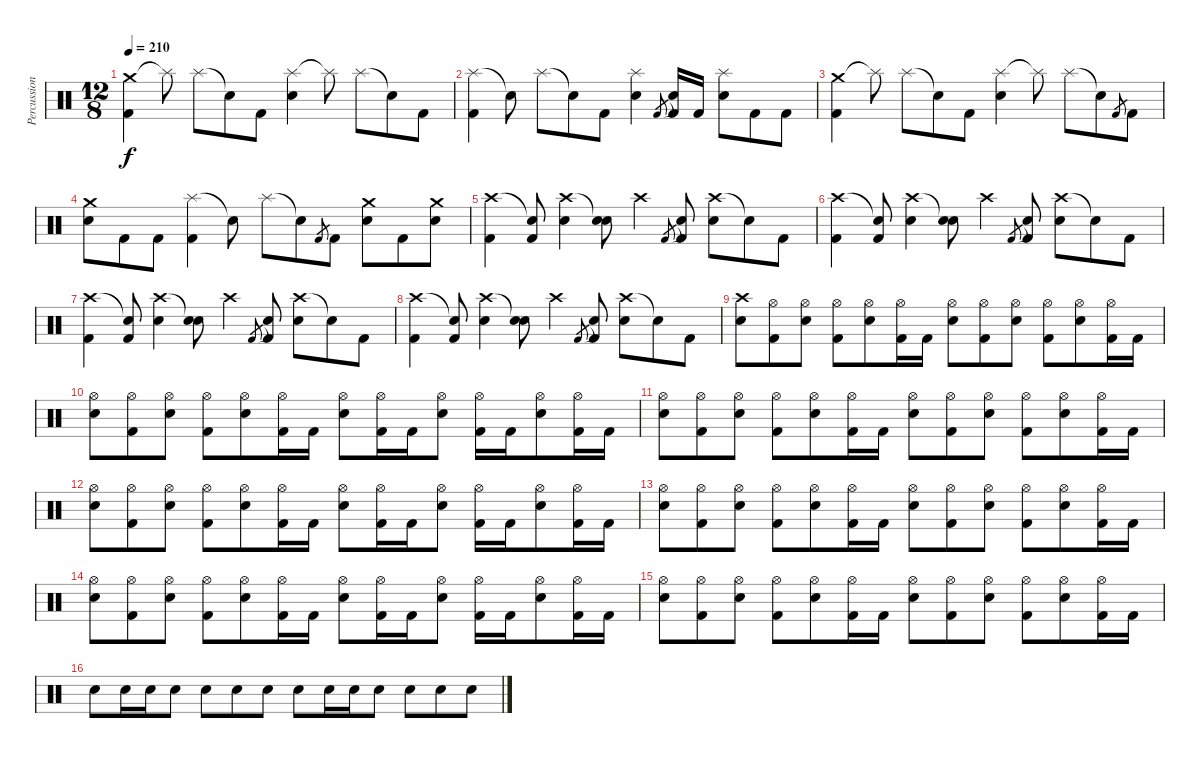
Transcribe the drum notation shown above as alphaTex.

\track ("Percussions" "Percussion") {instrument percussion}
\staff {score}
\articulation defaults
\ts (12 8)
\tempo 210
\clef neutral
\ks c
("Crash medium (hit)" "Kick (hit) 2").4{dy f} "Splash (hit)"{t}.8 "Splash (hit)".8 "Snare (hit)"{t}.8 "Kick (hit) 2".8 ("Splash (hit)" "Snare (hit) 2").4 "Splash (hit)"{t}.8 "Splash (hit)".8 "Snare (hit)"{t}.8 "Kick (hit) 2".8 |
("Splash (hit)" "Kick (hit) 2").4 "Snare (hit)"{t}.8 "Splash (hit)".8 "Snare (hit)"{t}.8 "Kick (hit) 2".8 ("Splash (hit)" "Snare (hit) 2").4 "Kick (hit) 2".8{gr} ("Snare (hit)"{t} "Kick (hit) 2").16 "Kick (hit) 2".16 ("Splash (hit)" "Snare (hit) 2").8 "Kick (hit) 2".8 "Kick (hit) 2".8 |
("Crash medium (hit)" "Kick (hit) 2").4 "Splash (hit)"{t}.8 "Splash (hit)".8 "Snare (hit)"{t}.8 "Kick (hit) 2".8 ("Splash (hit)" "Snare (hit) 2").4 "Splash (hit)"{t}.8 "Splash (hit)".8 "Snare (hit)"{t}.8 "Kick (hit) 2".8{gr} "Kick (hit) 2".8 |
("Crash medium (hit)" "Snare (hit) 2").8 "Kick (hit) 2".8 "Kick (hit) 2".8 ("Splash (hit)" "Kick (hit) 2").4 "Snare (hit)"{t}.8 "Splash (hit)".8 "Snare (hit)"{t}.8 "Kick (hit) 2".8{gr} "Kick (hit) 2".8 ("Crash medium (hit)" "Snare (hit) 2").8 "Kick (hit) 2".8 ("Crash medium (hit)" "Snare (hit) 2").8 |
("Crash high (hit)" "Kick (hit) 2").4 ("Snare (hit)"{t} "Kick (hit) 2").8 ("Crash high (hit)" "Snare (hit) 2").4 ("Snare (hit)"{t} "Snare (hit) 2").8 "Crash high (hit)".4 "Kick (hit) 2".8{gr} ("Snare (hit)"{t} "Kick (hit) 2").8 ("Crash high (hit)" "Snare (hit) 2").8 "Snare (hit)"{t}.8 "Kick (hit) 2".8 |
("Crash high (hit)" "Kick (hit) 2").4 ("Snare (hit)"{t} "Kick (hit) 2").8 ("Crash high (hit)" "Snare (hit) 2").4 ("Snare (hit)"{t} "Snare (hit) 2").8 "Crash high (hit)".4 "Kick (hit) 2".8{gr} ("Snare (hit)"{t} "Kick (hit) 2").8 ("Crash high (hit)" "Snare (hit) 2").8 "Snare (hit)"{t}.8 "Kick (hit) 2".8 |
("Crash high (hit)" "Kick (hit) 2").4 ("Snare (hit)"{t} "Kick (hit) 2").8 ("Crash high (hit)" "Snare (hit) 2").4 ("Snare (hit)"{t} "Snare (hit) 2").8 "Crash high (hit)".4 "Kick (hit) 2".8{gr} ("Snare (hit)"{t} "Kick (hit) 2").8 ("Crash high (hit)" "Snare (hit) 2").8 "Snare (hit)"{t}.8 "Kick (hit) 2".8 |
("Crash high (hit)" "Kick (hit) 2").4 ("Snare (hit)"{t} "Kick (hit) 2").8 ("Crash high (hit)" "Snare (hit) 2").4 ("Snare (hit)"{t} "Snare (hit) 2").8 "Crash high (hit)".4 "Kick (hit) 2".8{gr} ("Snare (hit)"{t} "Kick (hit) 2").8 ("Crash high (hit)" "Snare (hit) 2").8 "Snare (hit)"{t}.8 "Kick (hit) 2".8 |
("Crash high (hit)" "Snare (hit) 2").8 ("Hi-Hat (open)" "Kick (hit) 2").8 ("Hi-Hat (open)" "Snare (hit) 2").8 ("Hi-Hat (open)" "Kick (hit) 2").8 ("Hi-Hat (open)" "Snare (hit) 2").8 ("Hi-Hat (open)" "Kick (hit) 2").16 "Kick (hit) 2".16 ("Hi-Hat (open)" "Snare (hit) 2").8 ("Hi-Hat (open)" "Kick (hit) 2").8 ("Hi-Hat (open)" "Snare (hit) 2").8 ("Hi-Hat (open)" "Kick (hit) 2").8 ("Hi-Hat (open)" "Snare (hit) 2").8 ("Hi-Hat (open)" "Kick (hit) 2").16 "Kick (hit) 2".16 |
("Hi-Hat (open)" "Snare (hit) 2").8 ("Hi-Hat (open)" "Kick (hit) 2").8 ("Hi-Hat (open)" "Snare (hit) 2").8 ("Hi-Hat (open)" "Kick (hit) 2").8 ("Hi-Hat (open)" "Snare (hit) 2").8 ("Hi-Hat (open)" "Kick (hit) 2").16 "Kick (hit) 2".16 ("Hi-Hat (open)" "Snare (hit) 2").8 ("Hi-Hat (open)" "Kick (hit) 2").16 "Kick (hit) 2".16 ("Hi-Hat (open)" "Snare (hit) 2").8 ("Hi-Hat (open)" "Kick (hit) 2").16 "Kick (hit) 2".16 ("Hi-Hat (open)" "Snare (hit) 2").8 ("Hi-Hat (open)" "Kick (hit) 2").16 "Kick (hit) 2".16 |
("Hi-Hat (open)" "Snare (hit) 2").8 ("Hi-Hat (open)" "Kick (hit) 2").8 ("Hi-Hat (open)" "Snare (hit) 2").8 ("Hi-Hat (open)" "Kick (hit) 2").8 ("Hi-Hat (open)" "Snare (hit) 2").8 ("Hi-Hat (open)" "Kick (hit) 2").16 "Kick (hit) 2".16 ("Hi-Hat (open)" "Snare (hit) 2").8 ("Hi-Hat (open)" "Kick (hit) 2").8 ("Hi-Hat (open)" "Snare (hit) 2").8 ("Hi-Hat (open)" "Kick (hit) 2").8 ("Hi-Hat (open)" "Snare (hit) 2").8 ("Hi-Hat (open)" "Kick (hit) 2").16 "Kick (hit) 2".16 |
("Hi-Hat (open)" "Snare (hit) 2").8 ("Hi-Hat (open)" "Kick (hit) 2").8 ("Hi-Hat (open)" "Snare (hit) 2").8 ("Hi-Hat (open)" "Kick (hit) 2").8 ("Hi-Hat (open)" "Snare (hit) 2").8 ("Hi-Hat (open)" "Kick (hit) 2").16 "Kick (hit) 2".16 ("Hi-Hat (open)" "Snare (hit) 2").8 ("Hi-Hat (open)" "Kick (hit) 2").16 "Kick (hit) 2".16 ("Hi-Hat (open)" "Snare (hit) 2").8 ("Hi-Hat (open)" "Kick (hit) 2").16 "Kick (hit) 2".16 ("Hi-Hat (open)" "Snare (hit) 2").8 ("Hi-Hat (open)" "Kick (hit) 2").16 "Kick (hit) 2".16 |
("Hi-Hat (open)" "Snare (hit) 2").8 ("Hi-Hat (open)" "Kick (hit) 2").8 ("Hi-Hat (open)" "Snare (hit) 2").8 ("Hi-Hat (open)" "Kick (hit) 2").8 ("Hi-Hat (open)" "Snare (hit) 2").8 ("Hi-Hat (open)" "Kick (hit) 2").16 "Kick (hit) 2".16 ("Hi-Hat (open)" "Snare (hit) 2").8 ("Hi-Hat (open)" "Kick (hit) 2").8 ("Hi-Hat (open)" "Snare (hit) 2").8 ("Hi-Hat (open)" "Kick (hit) 2").8 ("Hi-Hat (open)" "Snare (hit) 2").8 ("Hi-Hat (open)" "Kick (hit) 2").16 "Kick (hit) 2".16 |
("Hi-Hat (open)" "Snare (hit) 2").8 ("Hi-Hat (open)" "Kick (hit) 2").8 ("Hi-Hat (open)" "Snare (hit) 2").8 ("Hi-Hat (open)" "Kick (hit) 2").8 ("Hi-Hat (open)" "Snare (hit) 2").8 ("Hi-Hat (open)" "Kick (hit) 2").16 "Kick (hit) 2".16 ("Hi-Hat (open)" "Snare (hit) 2").8 ("Hi-Hat (open)" "Kick (hit) 2").16 "Kick (hit) 2".16 ("Hi-Hat (open)" "Snare (hit) 2").8 ("Hi-Hat (open)" "Kick (hit) 2").16 "Kick (hit) 2".16 ("Hi-Hat (open)" "Snare (hit) 2").8 ("Hi-Hat (open)" "Kick (hit) 2").16 "Kick (hit) 2".16 |
("Hi-Hat (open)" "Snare (hit) 2").8 ("Hi-Hat (open)" "Kick (hit) 2").8 ("Hi-Hat (open)" "Snare (hit) 2").8 ("Hi-Hat (open)" "Kick (hit) 2").8 ("Hi-Hat (open)" "Snare (hit) 2").8 ("Hi-Hat (open)" "Kick (hit) 2").16 "Kick (hit) 2".16 ("Hi-Hat (open)" "Snare (hit) 2").8 ("Hi-Hat (open)" "Kick (hit) 2").8 ("Hi-Hat (open)" "Snare (hit) 2").8 ("Hi-Hat (open)" "Kick (hit) 2").8 ("Hi-Hat (open)" "Snare (hit) 2").8 ("Hi-Hat (open)" "Kick (hit) 2").16 "Kick (hit) 2".16 |
"Snare (hit) 2".8 "Snare (hit) 2".16 "Snare (hit) 2".16 "Snare (hit) 2".8 "Snare (hit) 2".8 "Snare (hit) 2".8 "Snare (hit) 2".8 "Snare (hit) 2".8 "Snare (hit) 2".16 "Snare (hit) 2".16 "Snare (hit) 2".8 "Snare (hit) 2".8 "Snare (hit) 2".8 "Snare (hit) 2".8
